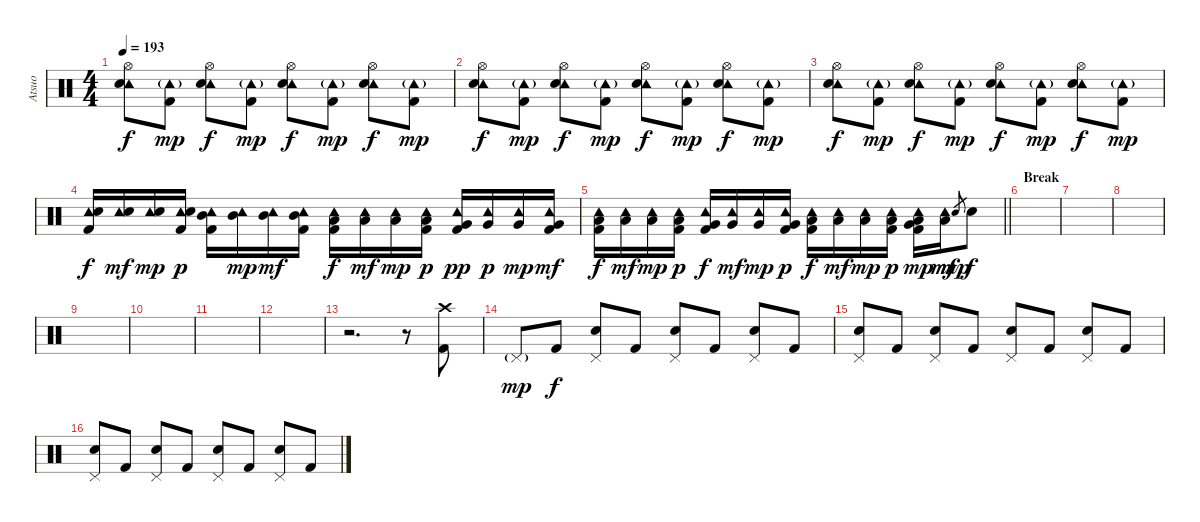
\track ("Atsuo" "Atsuo") {instrument percussion}
\staff {score}
\articulation defaults
\ts (4 4)
\tempo 193
\clef neutral
\ks c
("Hi-Hat (open)" "Tambourine (hit)" "Electric Snare (hit)").8{dy f} ("Tambourine (hit)"{g} "Kick (hit) 2").8{dy mp} ("Hi-Hat (open)" "Tambourine (hit)" "Electric Snare (hit)").8{dy f} ("Tambourine (hit)"{g} "Kick (hit) 2").8{dy mp} ("Hi-Hat (open)" "Tambourine (hit)" "Electric Snare (hit)").8{dy f} ("Tambourine (hit)"{g} "Kick (hit) 2").8{dy mp} ("Hi-Hat (open)" "Tambourine (hit)" "Electric Snare (hit)").8{dy f} ("Tambourine (hit)"{g} "Kick (hit) 2").8{dy mp} |
("Hi-Hat (open)" "Tambourine (hit)" "Electric Snare (hit)").8{dy f} ("Tambourine (hit)"{g} "Kick (hit) 2").8{dy mp} ("Hi-Hat (open)" "Tambourine (hit)" "Electric Snare (hit)").8{dy f} ("Tambourine (hit)"{g} "Kick (hit) 2").8{dy mp} ("Hi-Hat (open)" "Tambourine (hit)" "Electric Snare (hit)").8{dy f} ("Tambourine (hit)"{g} "Kick (hit) 2").8{dy mp} ("Hi-Hat (open)" "Tambourine (hit)" "Electric Snare (hit)").8{dy f} ("Tambourine (hit)"{g} "Kick (hit) 2").8{dy mp} |
("Hi-Hat (open)" "Tambourine (hit)" "Electric Snare (hit)").8{dy f} ("Tambourine (hit)"{g} "Kick (hit) 2").8{dy mp} ("Hi-Hat (open)" "Tambourine (hit)" "Electric Snare (hit)").8{dy f} ("Tambourine (hit)"{g} "Kick (hit) 2").8{dy mp} ("Hi-Hat (open)" "Tambourine (hit)" "Electric Snare (hit)").8{dy f} ("Tambourine (hit)"{g} "Kick (hit) 2").8{dy mp} ("Hi-Hat (open)" "Tambourine (hit)" "Electric Snare (hit)").8{dy f} ("Tambourine (hit)"{g} "Kick (hit) 2").8{dy mp} |
("Tambourine (hit)" "Electric Snare (hit)" "Kick (hit) 2").16{dy f} ("Tambourine (hit)" "Electric Snare (hit)").16{dy mf} ("Tambourine (hit)" "Electric Snare (hit)").16{dy mp} ("Tambourine (hit)" "Electric Snare (hit)" "Kick (hit) 2").16{dy p} ("Tambourine (hit)" "Mid Tom (hit)" "Kick (hit) 2").16 ("Tambourine (hit)" "Mid Tom (hit)").16{dy mp} ("Tambourine (hit)" "Mid Tom (hit)").16{dy mf} ("Tambourine (hit)" "Mid Tom (hit)" "Kick (hit) 2").16 ("Tambourine (hit)" "Low Tom (hit)" "Kick (hit) 2").16{dy f} ("Tambourine (hit)" "Low Tom (hit)").16{dy mf} ("Tambourine (hit)" "Low Tom (hit)").16{dy mp} ("Tambourine (hit)" "Low Tom (hit)" "Kick (hit) 2").16{dy p} ("Tambourine (hit)" "Very Low Tom (hit)" "Kick (hit) 2").16{dy pp} ("Tambourine (hit)" "Very Low Tom (hit)").16{dy p} ("Tambourine (hit)" "Very Low Tom (hit)").16{dy mp} ("Tambourine (hit)" "Very Low Tom (hit)" "Kick (hit) 2").16{dy mf} |
\barLineRight lightlight
("Tambourine (hit)" "Low Floor Tom (hit)" "Kick (hit) 2").16{dy f} ("Tambourine (hit)" "Low Floor Tom (hit)").16{dy mf} ("Tambourine (hit)" "Low Floor Tom (hit)").16{dy mp} ("Tambourine (hit)" "Low Floor Tom (hit)" "Kick (hit) 2").16{dy p} ("Tambourine (hit)" "Very Low Tom (hit)" "Kick (hit) 2").16{dy f} ("Tambourine (hit)" "Very Low Tom (hit)").16{dy mf} ("Tambourine (hit)" "Very Low Tom (hit)").16{dy mp} ("Tambourine (hit)" "Very Low Tom (hit)" "Kick (hit) 2").16{dy p} ("Tambourine (hit)" "Low Floor Tom (hit)" "Kick (hit) 2").16{dy f} ("Tambourine (hit)" "Low Floor Tom (hit)").16{dy mf} ("Tambourine (hit)" "Low Floor Tom (hit)").16{dy mp} ("Tambourine (hit)" "Low Floor Tom (hit)" "Kick (hit) 2").16{dy p} ("Tambourine (hit)" "Very Low Tom (hit)" "Low Floor Tom (hit)" "Kick (hit) 2").16{dy mp} ("Tambourine (hit)" "Low Floor Tom (hit)").16{dy mf} "Electric Snare (hit)".8{gr dy mp} "Electric Snare (hit)".8{dy f} |
\section ("" "Break")
|
|
|
|
|
|
|
r.2{d} r.8 ("Crash high (hit)" "Kick (hit) 2").8 |
"Pedal Hi-Hat (hit)"{g}.8{dy mp} "Kick (hit) 2".8{dy f} ("Pedal Hi-Hat (hit)" "Electric Snare (hit)").8 "Kick (hit) 2".8 ("Pedal Hi-Hat (hit)" "Electric Snare (hit)").8 "Kick (hit) 2".8 ("Pedal Hi-Hat (hit)" "Electric Snare (hit)").8 "Kick (hit) 2".8 |
("Pedal Hi-Hat (hit)" "Electric Snare (hit)").8 "Kick (hit) 2".8 ("Pedal Hi-Hat (hit)" "Electric Snare (hit)").8 "Kick (hit) 2".8 ("Pedal Hi-Hat (hit)" "Electric Snare (hit)").8 "Kick (hit) 2".8 ("Pedal Hi-Hat (hit)" "Electric Snare (hit)").8 "Kick (hit) 2".8 |
("Pedal Hi-Hat (hit)" "Electric Snare (hit)").8 "Kick (hit) 2".8 ("Pedal Hi-Hat (hit)" "Electric Snare (hit)").8 "Kick (hit) 2".8 ("Pedal Hi-Hat (hit)" "Electric Snare (hit)").8 "Kick (hit) 2".8 ("Pedal Hi-Hat (hit)" "Electric Snare (hit)").8 "Kick (hit) 2".8
